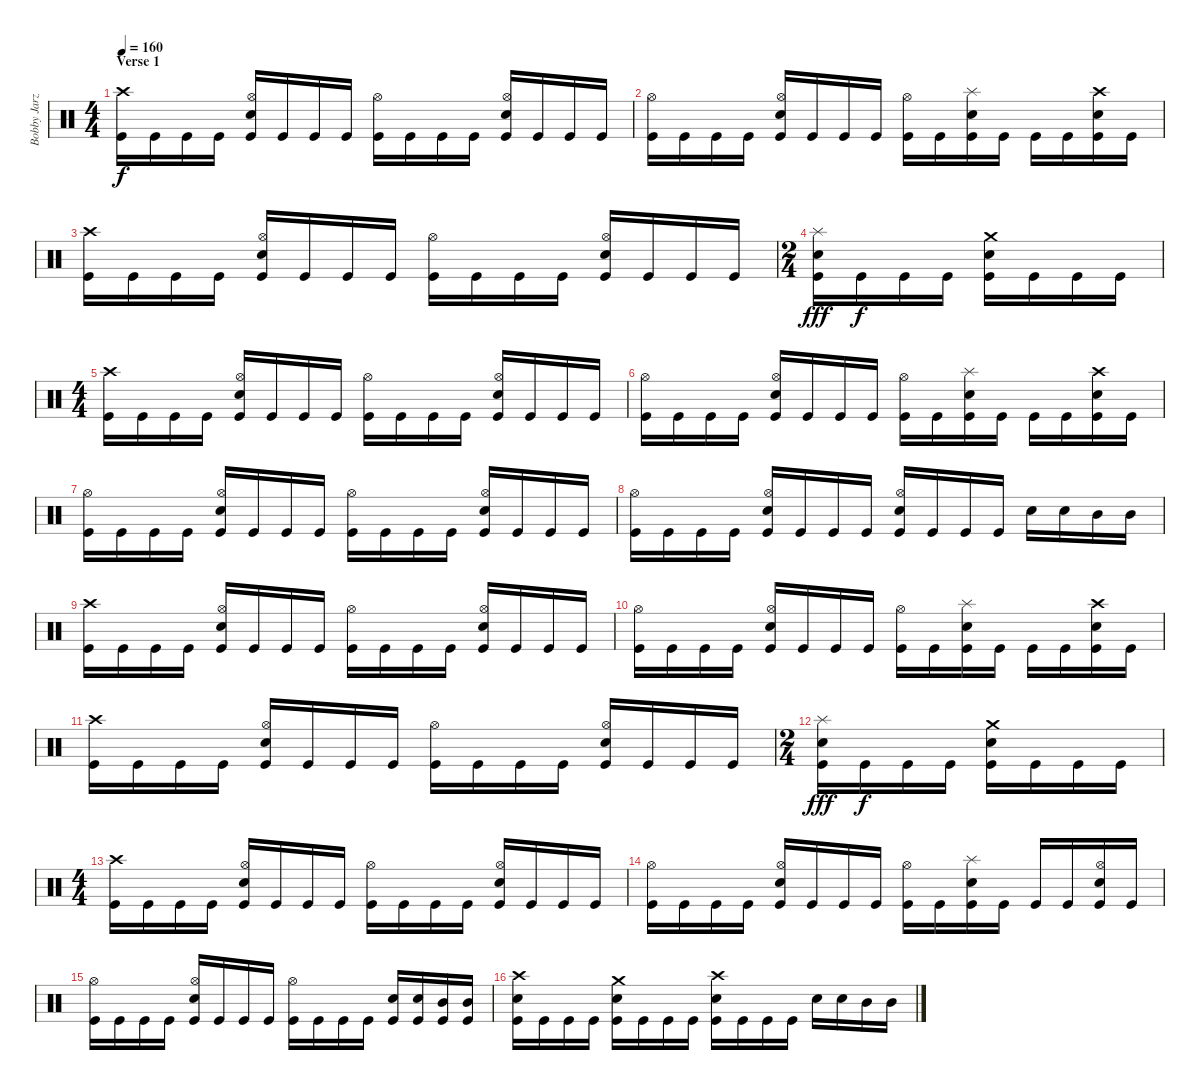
\track ("Bobby Jarzombek" "Bobby Jarz") {instrument percussion}
\staff {score}
\articulation defaults
\ts (4 4)
\section ("" "Verse 1")
\tempo 160
\clef neutral
\ks c
("Crash high (hit)" "Kick (hit)").16{dy f} "Kick (hit)".16 "Kick (hit)".16 "Kick (hit)".16 ("Hi-Hat (open)" "Electric Snare (hit)" "Kick (hit)").16 "Kick (hit)".16 "Kick (hit)".16 "Kick (hit)".16 ("Hi-Hat (open)" "Kick (hit)").16 "Kick (hit)".16 "Kick (hit)".16 "Kick (hit)".16 ("Hi-Hat (open)" "Electric Snare (hit)" "Kick (hit)").16 "Kick (hit)".16 "Kick (hit)".16 "Kick (hit)".16 |
("Hi-Hat (open)" "Kick (hit)").16 "Kick (hit)".16 "Kick (hit)".16 "Kick (hit)".16 ("Hi-Hat (open)" "Electric Snare (hit)" "Kick (hit)").16 "Kick (hit)".16 "Kick (hit)".16 "Kick (hit)".16 ("Hi-Hat (open)" "Kick (hit)").16 "Kick (hit)".16 ("Splash (hit)" "Electric Snare (hit)" "Kick (hit)").16 "Kick (hit)".16 "Kick (hit)".16 "Kick (hit)".16 ("Crash high (hit)" "Electric Snare (hit)" "Kick (hit)").16 "Kick (hit)".16 |
("Crash high (hit)" "Kick (hit)").16 "Kick (hit)".16 "Kick (hit)".16 "Kick (hit)".16 ("Hi-Hat (open)" "Electric Snare (hit)" "Kick (hit)").16 "Kick (hit)".16 "Kick (hit)".16 "Kick (hit)".16 ("Hi-Hat (open)" "Kick (hit)").16 "Kick (hit)".16 "Kick (hit)".16 "Kick (hit)".16 ("Hi-Hat (open)" "Electric Snare (hit)" "Kick (hit)").16 "Kick (hit)".16 "Kick (hit)".16 "Kick (hit)".16 |
\ts (2 4)
("Splash (hit)" "Electric Snare (hit)" "Kick (hit)").16{dy fff} "Kick (hit)".16{dy f} "Kick (hit)".16 "Kick (hit)".16 ("Crash medium (hit)" "Electric Snare (hit)" "Kick (hit)").16 "Kick (hit)".16 "Kick (hit)".16 "Kick (hit)".16 |
\ts (4 4)
("Crash high (hit)" "Kick (hit)").16 "Kick (hit)".16 "Kick (hit)".16 "Kick (hit)".16 ("Hi-Hat (open)" "Electric Snare (hit)" "Kick (hit)").16 "Kick (hit)".16 "Kick (hit)".16 "Kick (hit)".16 ("Hi-Hat (open)" "Kick (hit)").16 "Kick (hit)".16 "Kick (hit)".16 "Kick (hit)".16 ("Hi-Hat (open)" "Electric Snare (hit)" "Kick (hit)").16 "Kick (hit)".16 "Kick (hit)".16 "Kick (hit)".16 |
("Hi-Hat (open)" "Kick (hit)").16 "Kick (hit)".16 "Kick (hit)".16 "Kick (hit)".16 ("Hi-Hat (open)" "Electric Snare (hit)" "Kick (hit)").16 "Kick (hit)".16 "Kick (hit)".16 "Kick (hit)".16 ("Hi-Hat (open)" "Kick (hit)").16 "Kick (hit)".16 ("Splash (hit)" "Electric Snare (hit)" "Kick (hit)").16 "Kick (hit)".16 "Kick (hit)".16 "Kick (hit)".16 ("Crash high (hit)" "Electric Snare (hit)" "Kick (hit)").16 "Kick (hit)".16 |
("Hi-Hat (open)" "Kick (hit)").16 "Kick (hit)".16 "Kick (hit)".16 "Kick (hit)".16 ("Hi-Hat (open)" "Electric Snare (hit)" "Kick (hit)").16 "Kick (hit)".16 "Kick (hit)".16 "Kick (hit)".16 ("Hi-Hat (open)" "Kick (hit)").16 "Kick (hit)".16 "Kick (hit)".16 "Kick (hit)".16 ("Hi-Hat (open)" "Electric Snare (hit)" "Kick (hit)").16 "Kick (hit)".16 "Kick (hit)".16 "Kick (hit)".16 |
("Hi-Hat (open)" "Kick (hit)").16 "Kick (hit)".16 "Kick (hit)".16 "Kick (hit)".16 ("Hi-Hat (open)" "Electric Snare (hit)" "Kick (hit)").16 "Kick (hit)".16 "Kick (hit)".16 "Kick (hit)".16 ("Hi-Hat (open)" "Electric Snare (hit)" "Kick (hit)").16 "Kick (hit)".16 "Kick (hit)".16 "Kick (hit)".16 "Electric Snare (hit)".16 "Electric Snare (hit)".16 "Mid Tom (hit)".16 "Mid Tom (hit)".16 |
("Crash high (hit)" "Kick (hit)").16 "Kick (hit)".16 "Kick (hit)".16 "Kick (hit)".16 ("Hi-Hat (open)" "Electric Snare (hit)" "Kick (hit)").16 "Kick (hit)".16 "Kick (hit)".16 "Kick (hit)".16 ("Hi-Hat (open)" "Kick (hit)").16 "Kick (hit)".16 "Kick (hit)".16 "Kick (hit)".16 ("Hi-Hat (open)" "Electric Snare (hit)" "Kick (hit)").16 "Kick (hit)".16 "Kick (hit)".16 "Kick (hit)".16 |
("Hi-Hat (open)" "Kick (hit)").16 "Kick (hit)".16 "Kick (hit)".16 "Kick (hit)".16 ("Hi-Hat (open)" "Electric Snare (hit)" "Kick (hit)").16 "Kick (hit)".16 "Kick (hit)".16 "Kick (hit)".16 ("Hi-Hat (open)" "Kick (hit)").16 "Kick (hit)".16 ("Splash (hit)" "Electric Snare (hit)" "Kick (hit)").16 "Kick (hit)".16 "Kick (hit)".16 "Kick (hit)".16 ("Crash high (hit)" "Electric Snare (hit)" "Kick (hit)").16 "Kick (hit)".16 |
("Crash high (hit)" "Kick (hit)").16 "Kick (hit)".16 "Kick (hit)".16 "Kick (hit)".16 ("Hi-Hat (open)" "Electric Snare (hit)" "Kick (hit)").16 "Kick (hit)".16 "Kick (hit)".16 "Kick (hit)".16 ("Hi-Hat (open)" "Kick (hit)").16 "Kick (hit)".16 "Kick (hit)".16 "Kick (hit)".16 ("Hi-Hat (open)" "Electric Snare (hit)" "Kick (hit)").16 "Kick (hit)".16 "Kick (hit)".16 "Kick (hit)".16 |
\ts (2 4)
("Splash (hit)" "Electric Snare (hit)" "Kick (hit)").16{dy fff} "Kick (hit)".16{dy f} "Kick (hit)".16 "Kick (hit)".16 ("Crash medium (hit)" "Electric Snare (hit)" "Kick (hit)").16 "Kick (hit)".16 "Kick (hit)".16 "Kick (hit)".16 |
\ts (4 4)
("Crash high (hit)" "Kick (hit)").16 "Kick (hit)".16 "Kick (hit)".16 "Kick (hit)".16 ("Hi-Hat (open)" "Electric Snare (hit)" "Kick (hit)").16 "Kick (hit)".16 "Kick (hit)".16 "Kick (hit)".16 ("Hi-Hat (open)" "Kick (hit)").16 "Kick (hit)".16 "Kick (hit)".16 "Kick (hit)".16 ("Hi-Hat (open)" "Electric Snare (hit)" "Kick (hit)").16 "Kick (hit)".16 "Kick (hit)".16 "Kick (hit)".16 |
("Hi-Hat (open)" "Kick (hit)").16 "Kick (hit)".16 "Kick (hit)".16 "Kick (hit)".16 ("Hi-Hat (open)" "Electric Snare (hit)" "Kick (hit)").16 "Kick (hit)".16 "Kick (hit)".16 "Kick (hit)".16 ("Hi-Hat (open)" "Kick (hit)").16 "Kick (hit)".16 ("Splash (hit)" "Electric Snare (hit)" "Kick (hit)").16 "Kick (hit)".16 "Kick (hit)".16 "Kick (hit)".16 ("Hi-Hat (open)" "Electric Snare (hit)" "Kick (hit)").16 "Kick (hit)".16 |
("Hi-Hat (open)" "Kick (hit)").16 "Kick (hit)".16 "Kick (hit)".16 "Kick (hit)".16 ("Hi-Hat (open)" "Electric Snare (hit)" "Kick (hit)").16 "Kick (hit)".16 "Kick (hit)".16 "Kick (hit)".16 ("Hi-Hat (open)" "Kick (hit)").16 "Kick (hit)".16 "Kick (hit)".16 "Kick (hit)".16 ("Electric Snare (hit)" "Kick (hit)").16 ("Electric Snare (hit)" "Kick (hit)").16 ("Mid Tom (hit)" "Kick (hit)").16 ("Mid Tom (hit)" "Kick (hit)").16 |
("Crash high (hit)" "Electric Snare (hit)" "Kick (hit)").16 "Kick (hit)".16 "Kick (hit)".16 "Kick (hit)".16 ("Crash medium (hit)" "Electric Snare (hit)" "Kick (hit)").16 "Kick (hit)".16 "Kick (hit)".16 "Kick (hit)".16 ("Crash high (hit)" "Electric Snare (hit)" "Kick (hit)").16 "Kick (hit)".16 "Kick (hit)".16 "Kick (hit)".16 "Electric Snare (hit)".16 "Electric Snare (hit)".16 "Mid Tom (hit)".16 "Mid Tom (hit)".16
